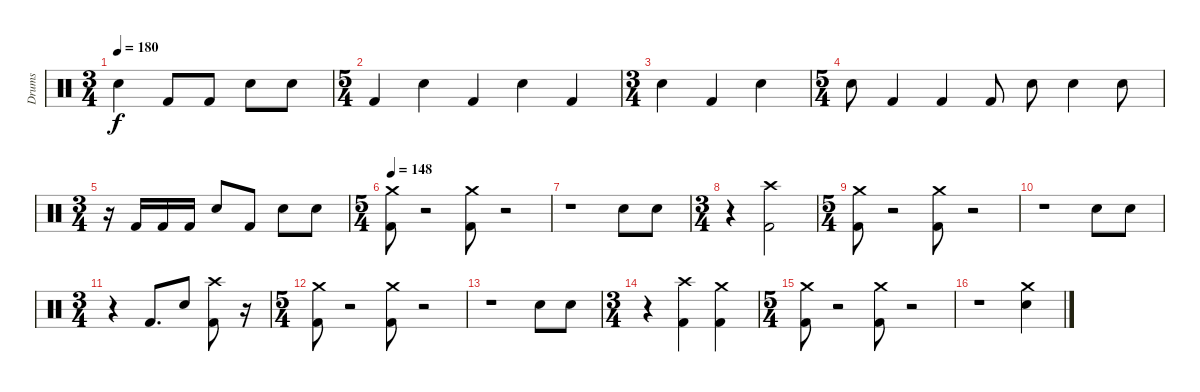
\track ("Drums" "Drums") {instrument percussion}
\staff {score}
\articulation defaults
\ts (3 4)
\tempo 180
\clef neutral
\ks c "Electric Snare (hit)".4{dy f} "Kick (hit) 2".8 "Kick (hit) 2".8 "Electric Snare (hit)".8 "Electric Snare (hit)".8
|
\ts (5 4)
"Kick (hit) 2".4 "Electric Snare (hit)".4 "Kick (hit) 2".4 "Electric Snare (hit)".4 "Kick (hit) 2".4 |
\ts (3 4)
"Electric Snare (hit)".4 "Kick (hit) 2".4 "Electric Snare (hit)".4 |
\ts (5 4)
"Electric Snare (hit)".8 "Kick (hit) 2".4 "Kick (hit) 2".4 "Kick (hit) 2".8 "Electric Snare (hit)".8 "Electric Snare (hit)".4 "Electric Snare (hit)".8 |
\ts (3 4)
r.16 "Kick (hit) 2".16 "Kick (hit) 2".16 "Kick (hit) 2".16 "Electric Snare (hit)".8 "Kick (hit) 2".8 "Electric Snare (hit)".8 "Electric Snare (hit)".8 |
\ts (5 4)
\tempo 148
("Crash medium (hit)" "Kick (hit) 2").8 r.2 ("Crash medium (hit)" "Kick (hit) 2").8 r.2 |
r.1 "Electric Snare (hit)".8 "Electric Snare (hit)".8 |
\ts (3 4)
r.4 ("Crash high (hit)" "Kick (hit) 2").2 |
\ts (5 4)
("Crash medium (hit)" "Kick (hit) 2").8 r.2 ("Crash medium (hit)" "Kick (hit) 2").8 r.2 |
r.1 "Electric Snare (hit)".8 "Electric Snare (hit)".8 |
\ts (3 4)
r.4 "Kick (hit) 2".8{d} "Electric Snare (hit)".8 ("Crash high (hit)" "Kick (hit) 2").8 r.16 |
\ts (5 4)
("Crash medium (hit)" "Kick (hit) 2").8 r.2 ("Crash medium (hit)" "Kick (hit) 2").8 r.2 |
r.1 "Electric Snare (hit)".8 "Electric Snare (hit)".8 |
\ts (3 4)
r.4 ("Crash high (hit)" "Kick (hit) 2").4 ("Crash medium (hit)" "Kick (hit) 2").4 |
\ts (5 4)
("Crash medium (hit)" "Kick (hit) 2").8 r.2 ("Crash medium (hit)" "Kick (hit) 2").8 r.2 |
r.1 ("Crash medium (hit)" "Electric Snare (hit)").4
